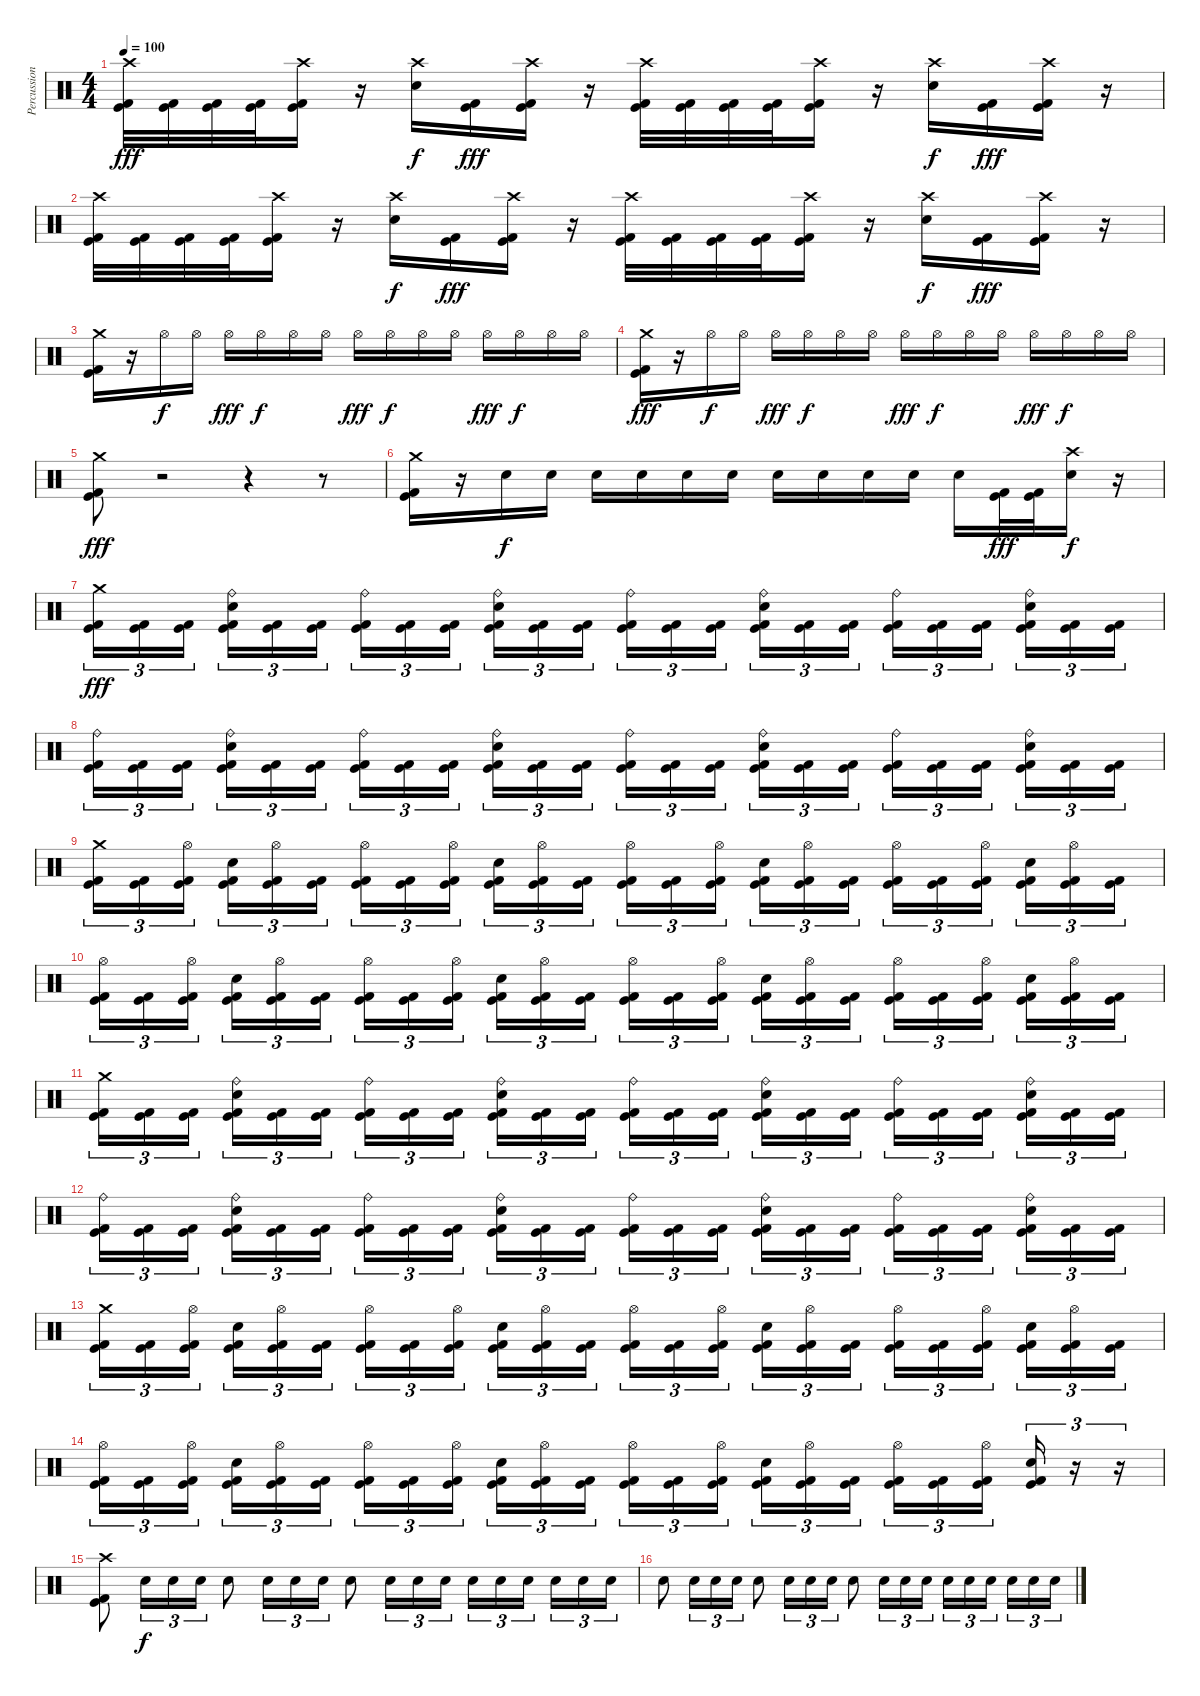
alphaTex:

\track ("Percussion" "Percussion") {instrument percussion}
\staff {score}
\articulation defaults
\ts (4 4)
\tempo 100
\clef neutral
\ks c
("Crash high (hit)" "Kick (hit)" "Kick (hit) 2").32{dy fff} ("Kick (hit)" "Kick (hit) 2").32 ("Kick (hit)" "Kick (hit) 2").32 ("Kick (hit)" "Kick (hit) 2").32 ("Crash high (hit)" "Kick (hit)" "Kick (hit) 2").16 r.16 ("Crash high (hit)" "Electric Snare (hit)").16{dy f} ("Kick (hit)" "Kick (hit) 2").16{dy fff} ("Crash high (hit)" "Kick (hit)" "Kick (hit) 2").16 r.16 ("Crash high (hit)" "Kick (hit)" "Kick (hit) 2").32 ("Kick (hit)" "Kick (hit) 2").32 ("Kick (hit)" "Kick (hit) 2").32 ("Kick (hit)" "Kick (hit) 2").32 ("Crash high (hit)" "Kick (hit)" "Kick (hit) 2").16 r.16 ("Crash high (hit)" "Electric Snare (hit)").16{dy f} ("Kick (hit)" "Kick (hit) 2").16{dy fff} ("Crash high (hit)" "Kick (hit)" "Kick (hit) 2").16 r.16 |
("Crash high (hit)" "Kick (hit)" "Kick (hit) 2").32 ("Kick (hit)" "Kick (hit) 2").32 ("Kick (hit)" "Kick (hit) 2").32 ("Kick (hit)" "Kick (hit) 2").32 ("Crash high (hit)" "Kick (hit)" "Kick (hit) 2").16 r.16 ("Crash high (hit)" "Electric Snare (hit)").16{dy f} ("Kick (hit)" "Kick (hit) 2").16{dy fff} ("Crash high (hit)" "Kick (hit)" "Kick (hit) 2").16 r.16 ("Crash high (hit)" "Kick (hit)" "Kick (hit) 2").32 ("Kick (hit)" "Kick (hit) 2").32 ("Kick (hit)" "Kick (hit) 2").32 ("Kick (hit)" "Kick (hit) 2").32 ("Crash high (hit)" "Kick (hit)" "Kick (hit) 2").16 r.16 ("Crash high (hit)" "Electric Snare (hit)").16{dy f} ("Kick (hit)" "Kick (hit) 2").16{dy fff} ("Crash high (hit)" "Kick (hit)" "Kick (hit) 2").16 r.16 |
("Crash medium (hit)" "Kick (hit)" "Kick (hit) 2").16 r.16 "Hi-Hat (open)".16{dy f} "Hi-Hat (open)".16 "Hi-Hat (open)".16{dy fff} "Hi-Hat (open)".16{dy f} "Hi-Hat (open)".16 "Hi-Hat (open)".16 "Hi-Hat (open)".16{dy fff} "Hi-Hat (open)".16{dy f} "Hi-Hat (open)".16 "Hi-Hat (open)".16 "Hi-Hat (open)".16{dy fff} "Hi-Hat (open)".16{dy f} "Hi-Hat (open)".16 "Hi-Hat (open)".16 |
("Crash medium (hit)" "Kick (hit)" "Kick (hit) 2").16{dy fff} r.16 "Hi-Hat (open)".16{dy f} "Hi-Hat (open)".16 "Hi-Hat (open)".16{dy fff} "Hi-Hat (open)".16{dy f} "Hi-Hat (open)".16 "Hi-Hat (open)".16 "Hi-Hat (open)".16{dy fff} "Hi-Hat (open)".16{dy f} "Hi-Hat (open)".16 "Hi-Hat (open)".16 "Hi-Hat (open)".16{dy fff} "Hi-Hat (open)".16{dy f} "Hi-Hat (open)".16 "Hi-Hat (open)".16 |
("Crash medium (hit)" "Kick (hit)" "Kick (hit) 2").8{dy fff} r.2 r.4 r.8 |
("Crash medium (hit)" "Kick (hit)" "Kick (hit) 2").16 r.16 "Electric Snare (hit)".16{dy f} "Electric Snare (hit)".16 "Electric Snare (hit)".16 "Electric Snare (hit)".16 "Electric Snare (hit)".16 "Electric Snare (hit)".16 "Electric Snare (hit)".16 "Electric Snare (hit)".16 "Electric Snare (hit)".16 "Electric Snare (hit)".16 "Electric Snare (hit)".16 ("Kick (hit)" "Kick (hit) 2").32{dy fff} ("Kick (hit)" "Kick (hit) 2").32 ("Crash high (hit)" "Electric Snare (hit)").16{dy f} r.16 |
("Crash medium (hit)" "Kick (hit)" "Kick (hit) 2").16{tu (3 2) dy fff} ("Kick (hit)" "Kick (hit) 2").16{tu (3 2)} ("Kick (hit)" "Kick (hit) 2").16{tu (3 2)} ("Ride (bell)" "Electric Snare (hit)" "Kick (hit)" "Kick (hit) 2").16{tu (3 2)} ("Kick (hit)" "Kick (hit) 2").16{tu (3 2)} ("Kick (hit)" "Kick (hit) 2").16{tu (3 2)} ("Ride (bell)" "Kick (hit)" "Kick (hit) 2").16{tu (3 2)} ("Kick (hit)" "Kick (hit) 2").16{tu (3 2)} ("Kick (hit)" "Kick (hit) 2").16{tu (3 2)} ("Ride (bell)" "Electric Snare (hit)" "Kick (hit)" "Kick (hit) 2").16{tu (3 2)} ("Kick (hit)" "Kick (hit) 2").16{tu (3 2)} ("Kick (hit)" "Kick (hit) 2").16{tu (3 2)} ("Ride (bell)" "Kick (hit)" "Kick (hit) 2").16{tu (3 2)} ("Kick (hit)" "Kick (hit) 2").16{tu (3 2)} ("Kick (hit)" "Kick (hit) 2").16{tu (3 2)} ("Ride (bell)" "Electric Snare (hit)" "Kick (hit)" "Kick (hit) 2").16{tu (3 2)} ("Kick (hit)" "Kick (hit) 2").16{tu (3 2)} ("Kick (hit)" "Kick (hit) 2").16{tu (3 2)} ("Ride (bell)" "Kick (hit)" "Kick (hit) 2").16{tu (3 2)} ("Kick (hit)" "Kick (hit) 2").16{tu (3 2)} ("Kick (hit)" "Kick (hit) 2").16{tu (3 2)} ("Ride (bell)" "Electric Snare (hit)" "Kick (hit)" "Kick (hit) 2").16{tu (3 2)} ("Kick (hit)" "Kick (hit) 2").16{tu (3 2)} ("Kick (hit)" "Kick (hit) 2").16{tu (3 2)} |
("Ride (bell)" "Kick (hit)" "Kick (hit) 2").16{tu (3 2)} ("Kick (hit)" "Kick (hit) 2").16{tu (3 2)} ("Kick (hit)" "Kick (hit) 2").16{tu (3 2)} ("Ride (bell)" "Electric Snare (hit)" "Kick (hit)" "Kick (hit) 2").16{tu (3 2)} ("Kick (hit)" "Kick (hit) 2").16{tu (3 2)} ("Kick (hit)" "Kick (hit) 2").16{tu (3 2)} ("Ride (bell)" "Kick (hit)" "Kick (hit) 2").16{tu (3 2)} ("Kick (hit)" "Kick (hit) 2").16{tu (3 2)} ("Kick (hit)" "Kick (hit) 2").16{tu (3 2)} ("Ride (bell)" "Electric Snare (hit)" "Kick (hit)" "Kick (hit) 2").16{tu (3 2)} ("Kick (hit)" "Kick (hit) 2").16{tu (3 2)} ("Kick (hit)" "Kick (hit) 2").16{tu (3 2)} ("Ride (bell)" "Kick (hit)" "Kick (hit) 2").16{tu (3 2)} ("Kick (hit)" "Kick (hit) 2").16{tu (3 2)} ("Kick (hit)" "Kick (hit) 2").16{tu (3 2)} ("Ride (bell)" "Electric Snare (hit)" "Kick (hit)" "Kick (hit) 2").16{tu (3 2)} ("Kick (hit)" "Kick (hit) 2").16{tu (3 2)} ("Kick (hit)" "Kick (hit) 2").16{tu (3 2)} ("Ride (bell)" "Kick (hit)" "Kick (hit) 2").16{tu (3 2)} ("Kick (hit)" "Kick (hit) 2").16{tu (3 2)} ("Kick (hit)" "Kick (hit) 2").16{tu (3 2)} ("Ride (bell)" "Electric Snare (hit)" "Kick (hit)" "Kick (hit) 2").16{tu (3 2)} ("Kick (hit)" "Kick (hit) 2").16{tu (3 2)} ("Kick (hit)" "Kick (hit) 2").16{tu (3 2)} |
("Crash medium (hit)" "Kick (hit)" "Kick (hit) 2").16{tu (3 2)} ("Kick (hit)" "Kick (hit) 2").16{tu (3 2)} ("Hi-Hat (open)" "Kick (hit)" "Kick (hit) 2").16{tu (3 2)} ("Electric Snare (hit)" "Kick (hit)" "Kick (hit) 2").16{tu (3 2)} ("Hi-Hat (open)" "Kick (hit)" "Kick (hit) 2").16{tu (3 2)} ("Kick (hit)" "Kick (hit) 2").16{tu (3 2)} ("Hi-Hat (open)" "Kick (hit)" "Kick (hit) 2").16{tu (3 2)} ("Kick (hit)" "Kick (hit) 2").16{tu (3 2)} ("Hi-Hat (open)" "Kick (hit)" "Kick (hit) 2").16{tu (3 2)} ("Electric Snare (hit)" "Kick (hit)" "Kick (hit) 2").16{tu (3 2)} ("Hi-Hat (open)" "Kick (hit)" "Kick (hit) 2").16{tu (3 2)} ("Kick (hit)" "Kick (hit) 2").16{tu (3 2)} ("Hi-Hat (open)" "Kick (hit)" "Kick (hit) 2").16{tu (3 2)} ("Kick (hit)" "Kick (hit) 2").16{tu (3 2)} ("Hi-Hat (open)" "Kick (hit)" "Kick (hit) 2").16{tu (3 2)} ("Electric Snare (hit)" "Kick (hit)" "Kick (hit) 2").16{tu (3 2)} ("Hi-Hat (open)" "Kick (hit)" "Kick (hit) 2").16{tu (3 2)} ("Kick (hit)" "Kick (hit) 2").16{tu (3 2)} ("Hi-Hat (open)" "Kick (hit)" "Kick (hit) 2").16{tu (3 2)} ("Kick (hit)" "Kick (hit) 2").16{tu (3 2)} ("Hi-Hat (open)" "Kick (hit)" "Kick (hit) 2").16{tu (3 2)} ("Electric Snare (hit)" "Kick (hit)" "Kick (hit) 2").16{tu (3 2)} ("Hi-Hat (open)" "Kick (hit)" "Kick (hit) 2").16{tu (3 2)} ("Kick (hit)" "Kick (hit) 2").16{tu (3 2)} |
("Hi-Hat (open)" "Kick (hit)" "Kick (hit) 2").16{tu (3 2)} ("Kick (hit)" "Kick (hit) 2").16{tu (3 2)} ("Hi-Hat (open)" "Kick (hit)" "Kick (hit) 2").16{tu (3 2)} ("Electric Snare (hit)" "Kick (hit)" "Kick (hit) 2").16{tu (3 2)} ("Hi-Hat (open)" "Kick (hit)" "Kick (hit) 2").16{tu (3 2)} ("Kick (hit)" "Kick (hit) 2").16{tu (3 2)} ("Hi-Hat (open)" "Kick (hit)" "Kick (hit) 2").16{tu (3 2)} ("Kick (hit)" "Kick (hit) 2").16{tu (3 2)} ("Hi-Hat (open)" "Kick (hit)" "Kick (hit) 2").16{tu (3 2)} ("Electric Snare (hit)" "Kick (hit)" "Kick (hit) 2").16{tu (3 2)} ("Hi-Hat (open)" "Kick (hit)" "Kick (hit) 2").16{tu (3 2)} ("Kick (hit)" "Kick (hit) 2").16{tu (3 2)} ("Hi-Hat (open)" "Kick (hit)" "Kick (hit) 2").16{tu (3 2)} ("Kick (hit)" "Kick (hit) 2").16{tu (3 2)} ("Hi-Hat (open)" "Kick (hit)" "Kick (hit) 2").16{tu (3 2)} ("Electric Snare (hit)" "Kick (hit)" "Kick (hit) 2").16{tu (3 2)} ("Hi-Hat (open)" "Kick (hit)" "Kick (hit) 2").16{tu (3 2)} ("Kick (hit)" "Kick (hit) 2").16{tu (3 2)} ("Hi-Hat (open)" "Kick (hit)" "Kick (hit) 2").16{tu (3 2)} ("Kick (hit)" "Kick (hit) 2").16{tu (3 2)} ("Hi-Hat (open)" "Kick (hit)" "Kick (hit) 2").16{tu (3 2)} ("Electric Snare (hit)" "Kick (hit)" "Kick (hit) 2").16{tu (3 2)} ("Hi-Hat (open)" "Kick (hit)" "Kick (hit) 2").16{tu (3 2)} ("Kick (hit)" "Kick (hit) 2").16{tu (3 2)} |
("Crash medium (hit)" "Kick (hit)" "Kick (hit) 2").16{tu (3 2)} ("Kick (hit)" "Kick (hit) 2").16{tu (3 2)} ("Kick (hit)" "Kick (hit) 2").16{tu (3 2)} ("Ride (bell)" "Electric Snare (hit)" "Kick (hit)" "Kick (hit) 2").16{tu (3 2)} ("Kick (hit)" "Kick (hit) 2").16{tu (3 2)} ("Kick (hit)" "Kick (hit) 2").16{tu (3 2)} ("Ride (bell)" "Kick (hit)" "Kick (hit) 2").16{tu (3 2)} ("Kick (hit)" "Kick (hit) 2").16{tu (3 2)} ("Kick (hit)" "Kick (hit) 2").16{tu (3 2)} ("Ride (bell)" "Electric Snare (hit)" "Kick (hit)" "Kick (hit) 2").16{tu (3 2)} ("Kick (hit)" "Kick (hit) 2").16{tu (3 2)} ("Kick (hit)" "Kick (hit) 2").16{tu (3 2)} ("Ride (bell)" "Kick (hit)" "Kick (hit) 2").16{tu (3 2)} ("Kick (hit)" "Kick (hit) 2").16{tu (3 2)} ("Kick (hit)" "Kick (hit) 2").16{tu (3 2)} ("Ride (bell)" "Electric Snare (hit)" "Kick (hit)" "Kick (hit) 2").16{tu (3 2)} ("Kick (hit)" "Kick (hit) 2").16{tu (3 2)} ("Kick (hit)" "Kick (hit) 2").16{tu (3 2)} ("Ride (bell)" "Kick (hit)" "Kick (hit) 2").16{tu (3 2)} ("Kick (hit)" "Kick (hit) 2").16{tu (3 2)} ("Kick (hit)" "Kick (hit) 2").16{tu (3 2)} ("Ride (bell)" "Electric Snare (hit)" "Kick (hit)" "Kick (hit) 2").16{tu (3 2)} ("Kick (hit)" "Kick (hit) 2").16{tu (3 2)} ("Kick (hit)" "Kick (hit) 2").16{tu (3 2)} |
("Ride (bell)" "Kick (hit)" "Kick (hit) 2").16{tu (3 2)} ("Kick (hit)" "Kick (hit) 2").16{tu (3 2)} ("Kick (hit)" "Kick (hit) 2").16{tu (3 2)} ("Ride (bell)" "Electric Snare (hit)" "Kick (hit)" "Kick (hit) 2").16{tu (3 2)} ("Kick (hit)" "Kick (hit) 2").16{tu (3 2)} ("Kick (hit)" "Kick (hit) 2").16{tu (3 2)} ("Ride (bell)" "Kick (hit)" "Kick (hit) 2").16{tu (3 2)} ("Kick (hit)" "Kick (hit) 2").16{tu (3 2)} ("Kick (hit)" "Kick (hit) 2").16{tu (3 2)} ("Ride (bell)" "Electric Snare (hit)" "Kick (hit)" "Kick (hit) 2").16{tu (3 2)} ("Kick (hit)" "Kick (hit) 2").16{tu (3 2)} ("Kick (hit)" "Kick (hit) 2").16{tu (3 2)} ("Ride (bell)" "Kick (hit)" "Kick (hit) 2").16{tu (3 2)} ("Kick (hit)" "Kick (hit) 2").16{tu (3 2)} ("Kick (hit)" "Kick (hit) 2").16{tu (3 2)} ("Ride (bell)" "Electric Snare (hit)" "Kick (hit)" "Kick (hit) 2").16{tu (3 2)} ("Kick (hit)" "Kick (hit) 2").16{tu (3 2)} ("Kick (hit)" "Kick (hit) 2").16{tu (3 2)} ("Ride (bell)" "Kick (hit)" "Kick (hit) 2").16{tu (3 2)} ("Kick (hit)" "Kick (hit) 2").16{tu (3 2)} ("Kick (hit)" "Kick (hit) 2").16{tu (3 2)} ("Ride (bell)" "Electric Snare (hit)" "Kick (hit)" "Kick (hit) 2").16{tu (3 2)} ("Kick (hit)" "Kick (hit) 2").16{tu (3 2)} ("Kick (hit)" "Kick (hit) 2").16{tu (3 2)} |
("Crash medium (hit)" "Kick (hit)" "Kick (hit) 2").16{tu (3 2)} ("Kick (hit)" "Kick (hit) 2").16{tu (3 2)} ("Hi-Hat (open)" "Kick (hit)" "Kick (hit) 2").16{tu (3 2)} ("Electric Snare (hit)" "Kick (hit)" "Kick (hit) 2").16{tu (3 2)} ("Hi-Hat (open)" "Kick (hit)" "Kick (hit) 2").16{tu (3 2)} ("Kick (hit)" "Kick (hit) 2").16{tu (3 2)} ("Hi-Hat (open)" "Kick (hit)" "Kick (hit) 2").16{tu (3 2)} ("Kick (hit)" "Kick (hit) 2").16{tu (3 2)} ("Hi-Hat (open)" "Kick (hit)" "Kick (hit) 2").16{tu (3 2)} ("Electric Snare (hit)" "Kick (hit)" "Kick (hit) 2").16{tu (3 2)} ("Hi-Hat (open)" "Kick (hit)" "Kick (hit) 2").16{tu (3 2)} ("Kick (hit)" "Kick (hit) 2").16{tu (3 2)} ("Hi-Hat (open)" "Kick (hit)" "Kick (hit) 2").16{tu (3 2)} ("Kick (hit)" "Kick (hit) 2").16{tu (3 2)} ("Hi-Hat (open)" "Kick (hit)" "Kick (hit) 2").16{tu (3 2)} ("Electric Snare (hit)" "Kick (hit)" "Kick (hit) 2").16{tu (3 2)} ("Hi-Hat (open)" "Kick (hit)" "Kick (hit) 2").16{tu (3 2)} ("Kick (hit)" "Kick (hit) 2").16{tu (3 2)} ("Hi-Hat (open)" "Kick (hit)" "Kick (hit) 2").16{tu (3 2)} ("Kick (hit)" "Kick (hit) 2").16{tu (3 2)} ("Hi-Hat (open)" "Kick (hit)" "Kick (hit) 2").16{tu (3 2)} ("Electric Snare (hit)" "Kick (hit)" "Kick (hit) 2").16{tu (3 2)} ("Hi-Hat (open)" "Kick (hit)" "Kick (hit) 2").16{tu (3 2)} ("Kick (hit)" "Kick (hit) 2").16{tu (3 2)} |
("Hi-Hat (open)" "Kick (hit)" "Kick (hit) 2").16{tu (3 2)} ("Kick (hit)" "Kick (hit) 2").16{tu (3 2)} ("Hi-Hat (open)" "Kick (hit)" "Kick (hit) 2").16{tu (3 2)} ("Electric Snare (hit)" "Kick (hit)" "Kick (hit) 2").16{tu (3 2)} ("Hi-Hat (open)" "Kick (hit)" "Kick (hit) 2").16{tu (3 2)} ("Kick (hit)" "Kick (hit) 2").16{tu (3 2)} ("Hi-Hat (open)" "Kick (hit)" "Kick (hit) 2").16{tu (3 2)} ("Kick (hit)" "Kick (hit) 2").16{tu (3 2)} ("Hi-Hat (open)" "Kick (hit)" "Kick (hit) 2").16{tu (3 2)} ("Electric Snare (hit)" "Kick (hit)" "Kick (hit) 2").16{tu (3 2)} ("Hi-Hat (open)" "Kick (hit)" "Kick (hit) 2").16{tu (3 2)} ("Kick (hit)" "Kick (hit) 2").16{tu (3 2)} ("Hi-Hat (open)" "Kick (hit)" "Kick (hit) 2").16{tu (3 2)} ("Kick (hit)" "Kick (hit) 2").16{tu (3 2)} ("Hi-Hat (open)" "Kick (hit)" "Kick (hit) 2").16{tu (3 2)} ("Electric Snare (hit)" "Kick (hit)" "Kick (hit) 2").16{tu (3 2)} ("Hi-Hat (open)" "Kick (hit)" "Kick (hit) 2").16{tu (3 2)} ("Kick (hit)" "Kick (hit) 2").16{tu (3 2)} ("Hi-Hat (open)" "Kick (hit)" "Kick (hit) 2").16{tu (3 2)} ("Kick (hit)" "Kick (hit) 2").16{tu (3 2)} ("Hi-Hat (open)" "Kick (hit)" "Kick (hit) 2").16{tu (3 2)} ("Electric Snare (hit)" "Kick (hit)" "Kick (hit) 2").16{tu (3 2)} r.16{tu (3 2)} r.16{tu (3 2)} |
("Crash high (hit)" "Kick (hit)" "Kick (hit) 2").8 "Electric Snare (hit)".16{tu (3 2) dy f} "Electric Snare (hit)".16{tu (3 2)} "Electric Snare (hit)".16{tu (3 2)} "Electric Snare (hit)".8 "Electric Snare (hit)".16{tu (3 2)} "Electric Snare (hit)".16{tu (3 2)} "Electric Snare (hit)".16{tu (3 2)} "Electric Snare (hit)".8 "Electric Snare (hit)".16{tu (3 2)} "Electric Snare (hit)".16{tu (3 2)} "Electric Snare (hit)".16{tu (3 2)} "Electric Snare (hit)".16{tu (3 2)} "Electric Snare (hit)".16{tu (3 2)} "Electric Snare (hit)".16{tu (3 2)} "Electric Snare (hit)".16{tu (3 2)} "Electric Snare (hit)".16{tu (3 2)} "Electric Snare (hit)".16{tu (3 2)} |
"Electric Snare (hit)".8 "Electric Snare (hit)".16{tu (3 2)} "Electric Snare (hit)".16{tu (3 2)} "Electric Snare (hit)".16{tu (3 2)} "Electric Snare (hit)".8 "Electric Snare (hit)".16{tu (3 2)} "Electric Snare (hit)".16{tu (3 2)} "Electric Snare (hit)".16{tu (3 2)} "Electric Snare (hit)".8 "Electric Snare (hit)".16{tu (3 2)} "Electric Snare (hit)".16{tu (3 2)} "Electric Snare (hit)".16{tu (3 2)} "Electric Snare (hit)".16{tu (3 2)} "Electric Snare (hit)".16{tu (3 2)} "Electric Snare (hit)".16{tu (3 2)} "Electric Snare (hit)".16{tu (3 2)} "Electric Snare (hit)".16{tu (3 2)} "Electric Snare (hit)".16{tu (3 2)}
